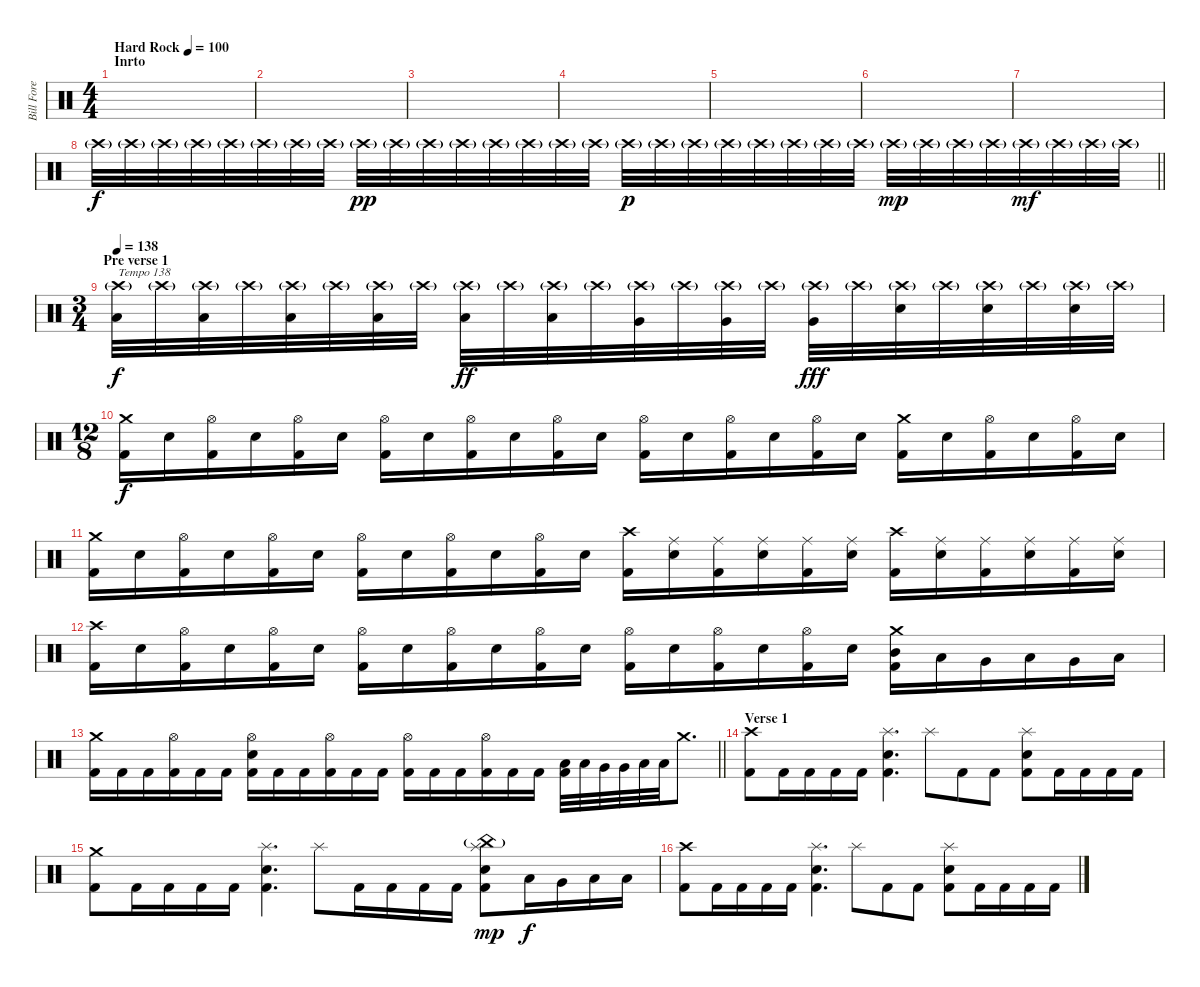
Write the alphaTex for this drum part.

\track ("Bill Fore" "Bill Fore") {instrument percussion}
\staff {score}
\articulation defaults
\ts (4 4)
\section ("" "Inrto")
\tempo (100 "Hard Rock")
\clef neutral
\ks c
|
|
|
|
|
|
|
\barLineRight lightlight "Crash high (hit)"{g}.32 "Crash high (hit)"{g}.32 "Crash high (hit)"{g}.32 "Crash high (hit)"{g}.32 "Crash high (hit)"{g}.32 "Crash high (hit)"{g}.32 "Crash high (hit)"{g}.32 "Crash high (hit)"{g}.32 "Crash high (hit)"{g}.32{dy pp} "Crash high (hit)"{g}.32 "Crash high (hit)"{g}.32 "Crash high (hit)"{g}.32 "Crash high (hit)"{g}.32 "Crash high (hit)"{g}.32 "Crash high (hit)"{g}.32 "Crash high (hit)"{g}.32 "Crash high (hit)"{g}.32{dy p} "Crash high (hit)"{g}.32 "Crash high (hit)"{g}.32 "Crash high (hit)"{g}.32 "Crash high (hit)"{g}.32 "Crash high (hit)"{g}.32 "Crash high (hit)"{g}.32 "Crash high (hit)"{g}.32 "Crash high (hit)"{g}.32{dy mp} "Crash high (hit)"{g}.32 "Crash high (hit)"{g}.32 "Crash high (hit)"{g}.32 "Crash high (hit)"{g}.32{dy mf} "Crash high (hit)"{g}.32 "Crash high (hit)"{g}.32 "Crash high (hit)"{g}.32
|
\ts (3 4)
\section ("" "Pre verse 1")
\tempo 138
("Crash high (hit)"{g} "Low Tom (hit)").32{txt "Tempo 138" dy f} "Crash high (hit)"{g}.32 ("Crash high (hit)"{g} "Low Tom (hit)").32 "Crash high (hit)"{g}.32 ("Crash high (hit)"{g} "Low Tom (hit)").32 "Crash high (hit)"{g}.32 ("Crash high (hit)"{g} "Low Tom (hit)").32 "Crash high (hit)"{g}.32 ("Crash high (hit)"{g} "Low Tom (hit)").32{dy ff} "Crash high (hit)"{g}.32 ("Crash high (hit)"{g} "Low Tom (hit)").32 "Crash high (hit)"{g}.32 ("Crash high (hit)"{g} "Very Low Tom (hit)").32 "Crash high (hit)"{g}.32 ("Crash high (hit)"{g} "Very Low Tom (hit)").32 "Crash high (hit)"{g}.32 ("Crash high (hit)"{g} "Very Low Tom (hit)").32{dy fff} "Crash high (hit)"{g}.32 ("Crash high (hit)"{g} "Electric Snare (hit)").32 "Crash high (hit)"{g}.32 ("Crash high (hit)"{g} "Electric Snare (hit)").32 "Crash high (hit)"{g}.32 ("Crash high (hit)"{g} "Electric Snare (hit)").32 "Crash high (hit)"{g}.32 |
\ts (12 8)
("Crash medium (hit)" "Kick (hit) 2").16{dy f} "Electric Snare (hit)".16 ("Hi-Hat (open)" "Kick (hit) 2").16 "Electric Snare (hit)".16 ("Hi-Hat (open)" "Kick (hit) 2").16 "Electric Snare (hit)".16 ("Hi-Hat (open)" "Kick (hit) 2").16 "Electric Snare (hit)".16 ("Hi-Hat (open)" "Kick (hit) 2").16 "Electric Snare (hit)".16 ("Hi-Hat (open)" "Kick (hit) 2").16 "Electric Snare (hit)".16 ("Hi-Hat (open)" "Kick (hit) 2").16 "Electric Snare (hit)".16 ("Hi-Hat (open)" "Kick (hit) 2").16 "Electric Snare (hit)".16 ("Hi-Hat (open)" "Kick (hit) 2").16 "Electric Snare (hit)".16 ("Crash medium (hit)" "Kick (hit) 2").16 "Electric Snare (hit)".16 ("Hi-Hat (open)" "Kick (hit) 2").16 "Electric Snare (hit)".16 ("Hi-Hat (open)" "Kick (hit) 2").16 "Electric Snare (hit)".16 |
("Crash medium (hit)" "Kick (hit) 2").16 "Electric Snare (hit)".16 ("Hi-Hat (open)" "Kick (hit) 2").16 "Electric Snare (hit)".16 ("Hi-Hat (open)" "Kick (hit) 2").16 "Electric Snare (hit)".16 ("Hi-Hat (open)" "Kick (hit) 2").16 "Electric Snare (hit)".16 ("Hi-Hat (open)" "Kick (hit) 2").16 "Electric Snare (hit)".16 ("Hi-Hat (open)" "Kick (hit) 2").16 "Electric Snare (hit)".16 ("Crash high (hit)" "Kick (hit) 2").16 ("Ride (middle)" "Electric Snare (hit)").16 ("Ride (middle)" "Kick (hit) 2").16 ("Ride (middle)" "Electric Snare (hit)").16 ("Ride (middle)" "Kick (hit) 2").16 ("Ride (middle)" "Electric Snare (hit)").16 ("Crash high (hit)" "Kick (hit) 2").16 ("Ride (middle)" "Electric Snare (hit)").16 ("Ride (middle)" "Kick (hit) 2").16 ("Ride (middle)" "Electric Snare (hit)").16 ("Ride (middle)" "Kick (hit) 2").16 ("Ride (middle)" "Electric Snare (hit)").16 |
("Crash high (hit)" "Kick (hit) 2").16 "Electric Snare (hit)".16 ("Hi-Hat (open)" "Kick (hit) 2").16 "Electric Snare (hit)".16 ("Hi-Hat (open)" "Kick (hit) 2").16 "Electric Snare (hit)".16 ("Hi-Hat (open)" "Kick (hit) 2").16 "Electric Snare (hit)".16 ("Hi-Hat (open)" "Kick (hit) 2").16 "Electric Snare (hit)".16 ("Hi-Hat (open)" "Kick (hit) 2").16 "Electric Snare (hit)".16 ("Hi-Hat (open)" "Kick (hit) 2").16 "Electric Snare (hit)".16 ("Hi-Hat (open)" "Kick (hit) 2").16 "Electric Snare (hit)".16 ("Hi-Hat (open)" "Kick (hit) 2").16 "Electric Snare (hit)".16 ("Crash medium (hit)" "Mid Tom (hit)" "Kick (hit) 2").16 "Low Tom (hit)".16 "Very Low Tom (hit)".16 "Low Tom (hit)".16 "Very Low Tom (hit)".16 "Low Floor Tom (hit)".16 |
\barLineRight lightlight
("Crash medium (hit)" "Kick (hit) 2").16 "Kick (hit) 2".16 "Kick (hit) 2".16 ("Hi-Hat (open)" "Kick (hit) 2").16 "Kick (hit) 2".16 "Kick (hit) 2".16 ("Hi-Hat (open)" "Electric Snare (hit)" "Kick (hit) 2").16 "Kick (hit) 2".16 "Kick (hit) 2".16 ("Hi-Hat (open)" "Kick (hit) 2").16 "Kick (hit) 2".16 "Kick (hit) 2".16 ("Hi-Hat (open)" "Kick (hit) 2").16 "Kick (hit) 2".16 "Kick (hit) 2".16 ("Hi-Hat (open)" "Kick (hit) 2").16 "Kick (hit) 2".16 "Kick (hit) 2".16 ("Low Tom (hit)" "Kick (hit) 2").32 "Low Tom (hit)".32 "Very Low Tom (hit)".32 "Very Low Tom (hit)".32 "Low Floor Tom (hit)".32 "Low Floor Tom (hit)".32 "Crash medium (hit)".8{d} |
\section ("" "Verse 1")
("Crash high (hit)" "Kick (hit) 2").8 "Kick (hit) 2".16 "Kick (hit) 2".16 "Kick (hit) 2".16 "Kick (hit) 2".16 ("Splash (hit)" "Electric Snare (hit)" "Kick (hit) 2").4{d} "Splash (hit)".8 "Kick (hit) 2".8 "Kick (hit) 2".8 ("Splash (hit)" "Electric Snare (hit)" "Kick (hit) 2").8 "Kick (hit) 2".16 "Kick (hit) 2".16 "Kick (hit) 2".16 "Kick (hit) 2".16 |
("Crash medium (hit)" "Kick (hit) 2").8 "Kick (hit) 2".16 "Kick (hit) 2".16 "Kick (hit) 2".16 "Kick (hit) 2".16 ("Splash (hit)" "Electric Snare (hit)" "Kick (hit) 2").4{d} "Splash (hit)".8 "Kick (hit) 2".16 "Kick (hit) 2".16 "Kick (hit) 2".16 "Kick (hit) 2".16 ("China (hit)"{g} "Splash (hit)" "Electric Snare (hit)" "Kick (hit) 2").8{dy mp} "Low Tom (hit)".16{dy f} "Very Low Tom (hit)".16 "Low Floor Tom (hit)".16 "Low Floor Tom (hit)".16 |
("Crash high (hit)" "Kick (hit) 2").8 "Kick (hit) 2".16 "Kick (hit) 2".16 "Kick (hit) 2".16 "Kick (hit) 2".16 ("Splash (hit)" "Electric Snare (hit)" "Kick (hit) 2").4{d} "Splash (hit)".8 "Kick (hit) 2".8 "Kick (hit) 2".8 ("Splash (hit)" "Electric Snare (hit)" "Kick (hit) 2").8 "Kick (hit) 2".16 "Kick (hit) 2".16 "Kick (hit) 2".16 "Kick (hit) 2".16
